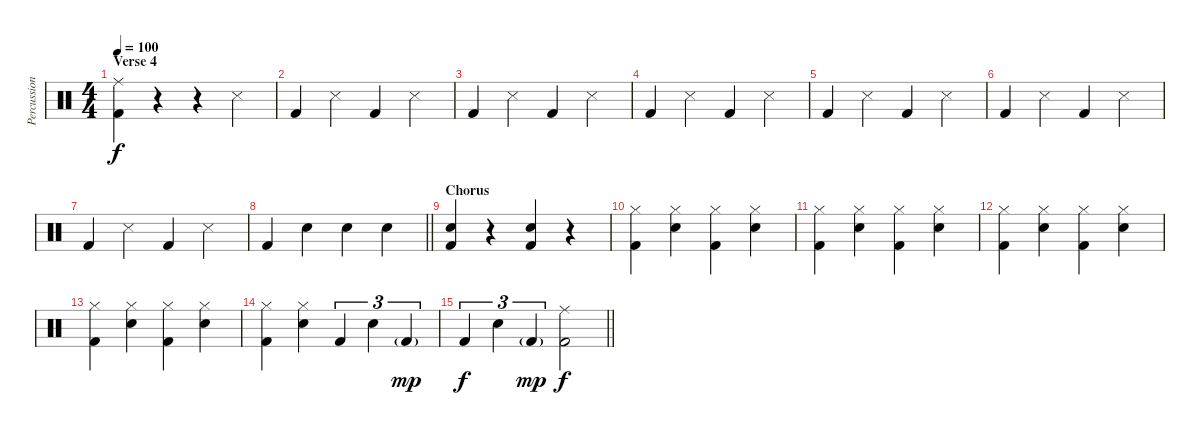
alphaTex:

\track ("Percussion" "Percussion") {instrument percussion}
\staff {score}
\articulation defaults
\ts (4 4)
\section ("" "Verse 4")
\tempo 100
\clef neutral
\ks c
("Ride (middle)" "Kick (hit) 2").4{dy f} r.4 r.4 "Snare (side stick) 3".4 |
"Kick (hit) 2".4 "Snare (side stick) 3".4 "Kick (hit) 2".4 "Snare (side stick) 3".4 |
"Kick (hit) 2".4 "Snare (side stick) 3".4 "Kick (hit) 2".4 "Snare (side stick) 3".4 |
"Kick (hit) 2".4 "Snare (side stick) 3".4 "Kick (hit) 2".4 "Snare (side stick) 3".4 |
"Kick (hit) 2".4 "Snare (side stick) 3".4 "Kick (hit) 2".4 "Snare (side stick) 3".4 |
"Kick (hit) 2".4 "Snare (side stick) 3".4 "Kick (hit) 2".4 "Snare (side stick) 3".4 |
"Kick (hit) 2".4 "Snare (side stick) 3".4 "Kick (hit) 2".4 "Snare (side stick) 3".4 |
\barLineRight lightlight "Kick (hit) 2".4 "Snare (hit) 2".4 "Snare (hit) 2".4 "Snare (hit) 2".4
|
\section ("" "Chorus")
("Snare (hit) 2" "Kick (hit) 2").4 r.4 ("Snare (hit) 2" "Kick (hit) 2").4 r.4 |
("Hi-Hat (closed)" "Kick (hit) 2").4 ("Hi-Hat (closed)" "Snare (hit) 2").4 ("Hi-Hat (closed)" "Kick (hit) 2").4 ("Hi-Hat (closed)" "Snare (hit) 2").4 |
("Hi-Hat (closed)" "Kick (hit) 2").4 ("Hi-Hat (closed)" "Snare (hit) 2").4 ("Hi-Hat (closed)" "Kick (hit) 2").4 ("Hi-Hat (closed)" "Snare (hit) 2").4 |
("Hi-Hat (closed)" "Kick (hit) 2").4 ("Hi-Hat (closed)" "Snare (hit) 2").4 ("Hi-Hat (closed)" "Kick (hit) 2").4 ("Hi-Hat (closed)" "Snare (hit) 2").4 |
("Hi-Hat (closed)" "Kick (hit) 2").4 ("Hi-Hat (closed)" "Snare (hit) 2").4 ("Hi-Hat (closed)" "Kick (hit) 2").4 ("Hi-Hat (closed)" "Snare (hit) 2").4 |
("Hi-Hat (closed)" "Kick (hit) 2").4 ("Hi-Hat (closed)" "Snare (hit) 2").4 "Kick (hit) 2".4{tu (3 2)} "Snare (hit) 2".4{tu (3 2)} "Kick (hit) 2"{g}.4{tu (3 2) dy mp} |
\barLineRight lightlight "Kick (hit) 2".4{tu (3 2) dy f} "Snare (hit) 2".4{tu (3 2)} "Kick (hit) 2"{g}.4{tu (3 2) dy mp}
("Ride (middle)" "Kick (hit) 2").2{dy f}
